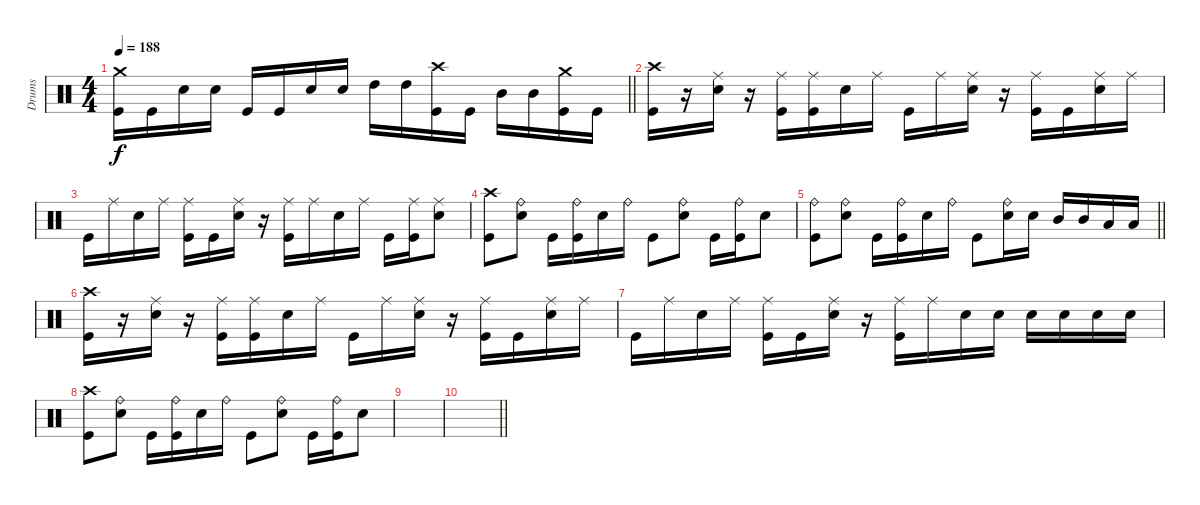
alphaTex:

\track ("Drums" "Drums") {instrument percussion}
\staff
\articulation defaults
\ts (4 4)
\tempo 188
\clef neutral
\barLineRight lightlight
\ks c
("Crash medium (hit)" "Kick (hit)").16{dy f} "Kick (hit)".16 "Electric Snare (hit)".16 "Electric Snare (hit)".16 "Kick (hit)".16 "Kick (hit)".16 "Electric Snare (hit)".16 "Electric Snare (hit)".16 "High Tom (hit)".16 "High Tom (hit)".16 ("Crash high (hit)" "Kick (hit)").16 "Kick (hit)".16 "Mid Tom (hit)".16 "Mid Tom (hit)".16 ("Crash medium (hit)" "Kick (hit)").16 "Kick (hit)".16 |
("Crash high (hit)" "Kick (hit)").16 r.16 ("Ride (middle)" "Electric Snare (hit)").16 r.16 ("Ride (middle)" "Kick (hit)").16 ("Ride (middle)" "Kick (hit)").16 "Electric Snare (hit)".16 "Ride (middle)".16 "Kick (hit)".16 "Ride (middle)".16 ("Ride (middle)" "Electric Snare (hit)").16 r.16 ("Ride (middle)" "Kick (hit)").16 "Kick (hit)".16 ("Ride (middle)" "Electric Snare (hit)").16 "Ride (middle)".16 |
"Kick (hit)".16 "Ride (middle)".16 "Electric Snare (hit)".16 "Ride (middle)".16 ("Ride (middle)" "Kick (hit)").16 "Kick (hit)".16 ("Ride (middle)" "Electric Snare (hit)").16 r.16 ("Ride (middle)" "Kick (hit)").16 "Ride (middle)".16 "Electric Snare (hit)".16 "Ride (middle)".16 "Kick (hit)".16 ("Ride (middle)" "Kick (hit)").16 ("Ride (middle)" "Electric Snare (hit)").8 |
("Crash high (hit)" "Kick (hit)").8 ("Ride (bell)" "Electric Snare (hit)").8 "Kick (hit)".16 ("Ride (bell)" "Kick (hit)").16 "Electric Snare (hit)".16 "Ride (bell)".16 "Kick (hit)".8 ("Ride (bell)" "Electric Snare (hit)").8 "Kick (hit)".16 ("Ride (bell)" "Kick (hit)").16 "Electric Snare (hit)".8 |
\barLineRight lightlight
("Ride (bell)" "Kick (hit)").8 ("Ride (bell)" "Electric Snare (hit)").8 "Kick (hit)".16 ("Ride (bell)" "Kick (hit)").16 "Electric Snare (hit)".16 "Ride (bell)".16 "Kick (hit)".8 ("Ride (bell)" "Electric Snare (hit)").16 "Electric Snare (hit)".16 "Mid Tom (hit)".16 "Mid Tom (hit)".16 "Low Tom (hit)".16 "Low Tom (hit)".16 |
("Crash high (hit)" "Kick (hit)").16 r.16 ("Ride (middle)" "Electric Snare (hit)").16 r.16 ("Ride (middle)" "Kick (hit)").16 ("Ride (middle)" "Kick (hit)").16 "Electric Snare (hit)".16 "Ride (middle)".16 "Kick (hit)".16 "Ride (middle)".16 ("Ride (middle)" "Electric Snare (hit)").16 r.16 ("Ride (middle)" "Kick (hit)").16 "Kick (hit)".16 ("Ride (middle)" "Electric Snare (hit)").16 "Ride (middle)".16 |
"Kick (hit)".16 "Ride (middle)".16 "Electric Snare (hit)".16 "Ride (middle)".16 ("Ride (middle)" "Kick (hit)").16 "Kick (hit)".16 ("Ride (middle)" "Electric Snare (hit)").16 r.16 ("Ride (middle)" "Kick (hit)").16 "Ride (middle)".16 "Electric Snare (hit)".16 "Electric Snare (hit)".16 "Electric Snare (hit)".16 "Electric Snare (hit)".16 "Electric Snare (hit)".16 "Electric Snare (hit)".16 |
("Crash high (hit)" "Kick (hit)").8 ("Ride (bell)" "Electric Snare (hit)").8 "Kick (hit)".16 ("Ride (bell)" "Kick (hit)").16 "Electric Snare (hit)".16 "Ride (bell)".16 "Kick (hit)".8 ("Ride (bell)" "Electric Snare (hit)").8 "Kick (hit)".16 ("Ride (bell)" "Kick (hit)").16 "Electric Snare (hit)".8 |
|
\barLineRight lightlight
